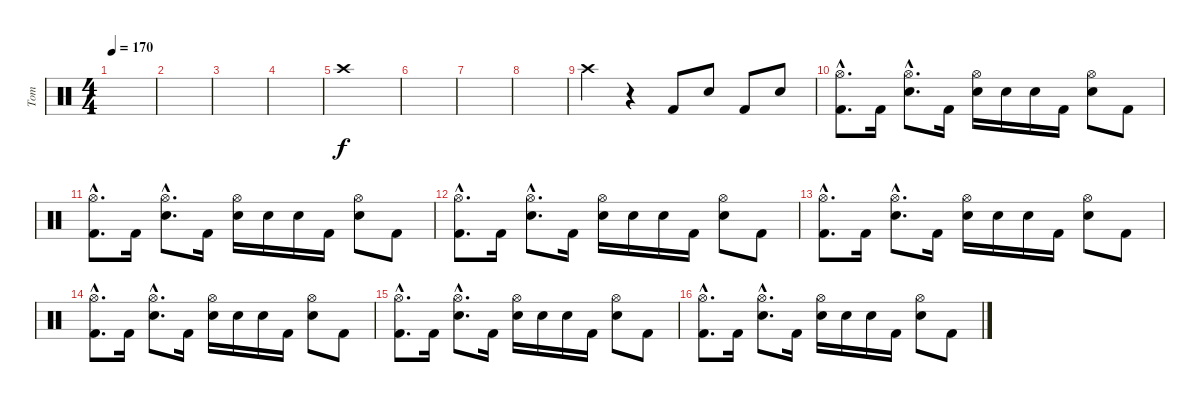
\track ("Tom" "Tom") {instrument percussion}
\staff {score}
\articulation defaults
\ts (4 4)
\tempo 170
\clef neutral
\ks c
|
|
|
|
"Crash high (hit)".1 |
|
|
|
"Crash high (hit)".4 r.4 "Kick (hit) 2".8 "Snare (hit) 2".8 "Kick (hit) 2".8 "Snare (hit) 2".8 |
("Hi-Hat (open)"{hac} "Kick (hit) 2"{hac}).8{d} "Kick (hit) 2".16 ("Hi-Hat (open)"{hac} "Electric Snare (hit)"{hac}).8{d} "Kick (hit) 2".16 ("Hi-Hat (open)" "Electric Snare (hit)").16 "Electric Snare (hit)".16 "Electric Snare (hit)".16 "Kick (hit) 2".16 ("Hi-Hat (open)" "Electric Snare (hit)").8 "Kick (hit) 2".8 |
("Hi-Hat (open)"{hac} "Kick (hit) 2"{hac}).8{d} "Kick (hit) 2".16 ("Hi-Hat (open)"{hac} "Electric Snare (hit)"{hac}).8{d} "Kick (hit) 2".16 ("Hi-Hat (open)" "Electric Snare (hit)").16 "Electric Snare (hit)".16 "Electric Snare (hit)".16 "Kick (hit) 2".16 ("Hi-Hat (open)" "Electric Snare (hit)").8 "Kick (hit) 2".8 |
("Hi-Hat (open)"{hac} "Kick (hit) 2"{hac}).8{d} "Kick (hit) 2".16 ("Hi-Hat (open)"{hac} "Electric Snare (hit)"{hac}).8{d} "Kick (hit) 2".16 ("Hi-Hat (open)" "Electric Snare (hit)").16 "Electric Snare (hit)".16 "Electric Snare (hit)".16 "Kick (hit) 2".16 ("Hi-Hat (open)" "Electric Snare (hit)").8 "Kick (hit) 2".8 |
("Hi-Hat (open)"{hac} "Kick (hit) 2"{hac}).8{d} "Kick (hit) 2".16 ("Hi-Hat (open)"{hac} "Electric Snare (hit)"{hac}).8{d} "Kick (hit) 2".16 ("Hi-Hat (open)" "Electric Snare (hit)").16 "Electric Snare (hit)".16 "Electric Snare (hit)".16 "Kick (hit) 2".16 ("Hi-Hat (open)" "Electric Snare (hit)").8 "Kick (hit) 2".8 |
("Hi-Hat (open)"{hac} "Kick (hit) 2"{hac}).8{d} "Kick (hit) 2".16 ("Hi-Hat (open)"{hac} "Electric Snare (hit)"{hac}).8{d} "Kick (hit) 2".16 ("Hi-Hat (open)" "Electric Snare (hit)").16 "Electric Snare (hit)".16 "Electric Snare (hit)".16 "Kick (hit) 2".16 ("Hi-Hat (open)" "Electric Snare (hit)").8 "Kick (hit) 2".8 |
("Hi-Hat (open)"{hac} "Kick (hit) 2"{hac}).8{d} "Kick (hit) 2".16 ("Hi-Hat (open)"{hac} "Electric Snare (hit)"{hac}).8{d} "Kick (hit) 2".16 ("Hi-Hat (open)" "Electric Snare (hit)").16 "Electric Snare (hit)".16 "Electric Snare (hit)".16 "Kick (hit) 2".16 ("Hi-Hat (open)" "Electric Snare (hit)").8 "Kick (hit) 2".8 |
("Hi-Hat (open)"{hac} "Kick (hit) 2"{hac}).8{d} "Kick (hit) 2".16 ("Hi-Hat (open)"{hac} "Electric Snare (hit)"{hac}).8{d} "Kick (hit) 2".16 ("Hi-Hat (open)" "Electric Snare (hit)").16 "Electric Snare (hit)".16 "Electric Snare (hit)".16 "Kick (hit) 2".16 ("Hi-Hat (open)" "Electric Snare (hit)").8 "Kick (hit) 2".8
